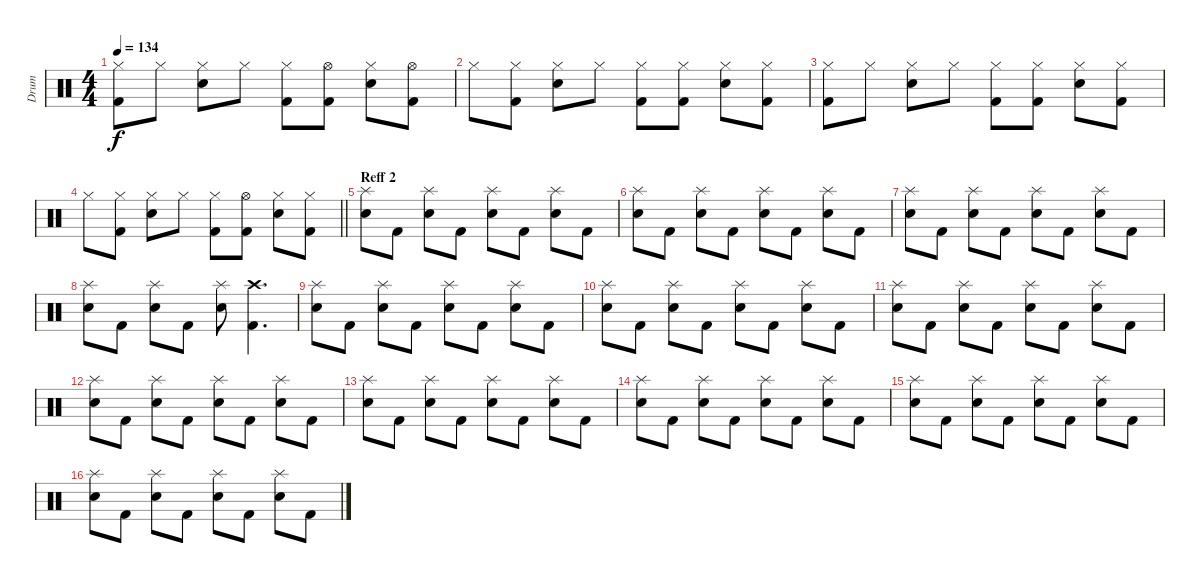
\track ("Drum" "Drum") {instrument percussion}
\staff {score}
\articulation defaults
\ts (4 4)
\tempo 134
\clef neutral
\ks c
("Kick (hit) 2" "Hi-Hat (closed)").8{dy f} "Hi-Hat (closed)".8 ("Hi-Hat (closed)" "Electric Snare (hit)").8 "Hi-Hat (closed)".8 ("Hi-Hat (closed)" "Kick (hit) 2").8 ("Hi-Hat (open)" "Kick (hit) 2").8 ("Electric Snare (hit)" "Hi-Hat (closed)").8 ("Hi-Hat (open)" "Kick (hit) 2").8 |
"Hi-Hat (closed)".8 ("Hi-Hat (closed)" "Kick (hit) 2").8 ("Electric Snare (hit)" "Hi-Hat (closed)").8 "Hi-Hat (closed)".8 ("Kick (hit) 2" "Hi-Hat (closed)").8 ("Hi-Hat (closed)" "Kick (hit) 2").8 ("Hi-Hat (closed)" "Electric Snare (hit)").8 ("Kick (hit) 2" "Hi-Hat (closed)").8 |
("Kick (hit) 2" "Hi-Hat (closed)").8 "Hi-Hat (closed)".8 ("Hi-Hat (closed)" "Electric Snare (hit)").8 "Hi-Hat (closed)".8 ("Hi-Hat (closed)" "Kick (hit) 2").8 ("Hi-Hat (closed)" "Kick (hit) 2").8 ("Electric Snare (hit)" "Hi-Hat (closed)").8 ("Hi-Hat (closed)" "Kick (hit) 2").8 |
\barLineRight lightlight "Hi-Hat (closed)".8
("Hi-Hat (closed)" "Kick (hit) 2").8 ("Electric Snare (hit)" "Hi-Hat (closed)").8 "Hi-Hat (closed)".8 ("Kick (hit) 2" "Hi-Hat (closed)").8 ("Hi-Hat (open)" "Kick (hit) 2").8 ("Hi-Hat (closed)" "Electric Snare (hit)").8 ("Kick (hit) 2" "Hi-Hat (closed)").8 |
\section ("" "Reff 2")
("Electric Snare (hit)" "Splash (hit)").8 "Kick (hit) 2".8 ("Electric Snare (hit)" "Splash (hit)").8 "Kick (hit) 2".8 ("Electric Snare (hit)" "Splash (hit)").8 "Kick (hit) 2".8 ("Electric Snare (hit)" "Splash (hit)").8 "Kick (hit) 2".8 |
("Electric Snare (hit)" "Splash (hit)").8 "Kick (hit) 2".8 ("Electric Snare (hit)" "Splash (hit)").8 "Kick (hit) 2".8 ("Electric Snare (hit)" "Splash (hit)").8 "Kick (hit) 2".8 ("Electric Snare (hit)" "Splash (hit)").8 "Kick (hit) 2".8 |
("Electric Snare (hit)" "Splash (hit)").8 "Kick (hit) 2".8 ("Electric Snare (hit)" "Splash (hit)").8 "Kick (hit) 2".8 ("Electric Snare (hit)" "Splash (hit)").8 "Kick (hit) 2".8 ("Electric Snare (hit)" "Splash (hit)").8 "Kick (hit) 2".8 |
("Electric Snare (hit)" "Splash (hit)").8 "Kick (hit) 2".8 ("Electric Snare (hit)" "Splash (hit)").8 "Kick (hit) 2".8 ("Electric Snare (hit)" "Splash (hit)").8 ("Kick (hit) 2" "Crash high (hit)").4{d} |
("Electric Snare (hit)" "Splash (hit)").8 "Kick (hit) 2".8 ("Electric Snare (hit)" "Splash (hit)").8 "Kick (hit) 2".8 ("Electric Snare (hit)" "Splash (hit)").8 "Kick (hit) 2".8 ("Electric Snare (hit)" "Splash (hit)").8 "Kick (hit) 2".8 |
("Electric Snare (hit)" "Splash (hit)").8 "Kick (hit) 2".8 ("Electric Snare (hit)" "Splash (hit)").8 "Kick (hit) 2".8 ("Electric Snare (hit)" "Splash (hit)").8 "Kick (hit) 2".8 ("Electric Snare (hit)" "Splash (hit)").8 "Kick (hit) 2".8 |
("Electric Snare (hit)" "Splash (hit)").8 "Kick (hit) 2".8 ("Electric Snare (hit)" "Splash (hit)").8 "Kick (hit) 2".8 ("Electric Snare (hit)" "Splash (hit)").8 "Kick (hit) 2".8 ("Electric Snare (hit)" "Splash (hit)").8 "Kick (hit) 2".8 |
("Electric Snare (hit)" "Splash (hit)").8 "Kick (hit) 2".8 ("Electric Snare (hit)" "Splash (hit)").8 "Kick (hit) 2".8 ("Electric Snare (hit)" "Splash (hit)").8 "Kick (hit) 2".8 ("Electric Snare (hit)" "Splash (hit)").8 "Kick (hit) 2".8 |
("Electric Snare (hit)" "Splash (hit)").8 "Kick (hit) 2".8 ("Electric Snare (hit)" "Splash (hit)").8 "Kick (hit) 2".8 ("Electric Snare (hit)" "Splash (hit)").8 "Kick (hit) 2".8 ("Electric Snare (hit)" "Splash (hit)").8 "Kick (hit) 2".8 |
("Electric Snare (hit)" "Splash (hit)").8 "Kick (hit) 2".8 ("Electric Snare (hit)" "Splash (hit)").8 "Kick (hit) 2".8 ("Electric Snare (hit)" "Splash (hit)").8 "Kick (hit) 2".8 ("Electric Snare (hit)" "Splash (hit)").8 "Kick (hit) 2".8 |
("Electric Snare (hit)" "Splash (hit)").8 "Kick (hit) 2".8 ("Electric Snare (hit)" "Splash (hit)").8 "Kick (hit) 2".8 ("Electric Snare (hit)" "Splash (hit)").8 "Kick (hit) 2".8 ("Electric Snare (hit)" "Splash (hit)").8 "Kick (hit) 2".8 |
("Electric Snare (hit)" "Splash (hit)").8 "Kick (hit) 2".8 ("Electric Snare (hit)" "Splash (hit)").8 "Kick (hit) 2".8 ("Electric Snare (hit)" "Splash (hit)").8 "Kick (hit) 2".8 ("Electric Snare (hit)" "Splash (hit)").8 "Kick (hit) 2".8
